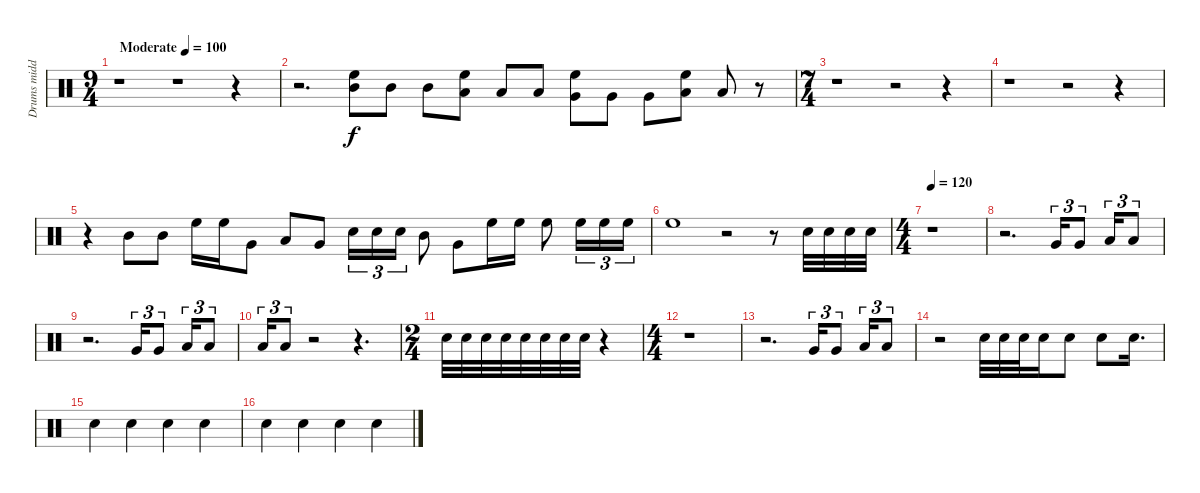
\track ("Drums middle" "Drums midd") {instrument percussion}
\staff {score}
\articulation defaults
\ts (9 4)
\tempo (100 "Moderate")
\clef neutral
\ks c
r.1{dy f} r.1 r.4 |
r.2{d} ("High Floor Tom (hit)" "Mid Tom (hit)").8 "Mid Tom (hit)".8 "Mid Tom (hit)".8 ("High Floor Tom (hit)" "Low Tom (hit)").8 "Low Tom (hit)".8 "Low Tom (hit)".8 ("High Floor Tom (hit)" "Very Low Tom (hit)").8 "Very Low Tom (hit)".8 "Very Low Tom (hit)".8 ("High Floor Tom (hit)" "Low Floor Tom (hit)").8 "Low Floor Tom (hit)".8 r.8 |
\ts (7 4)
r.1 r.2 r.4 |
r.1 r.2 r.4 |
r.4 "Mid Tom (hit)".8 "Mid Tom (hit)".8 "High Floor Tom (hit)".16 "High Floor Tom (hit)".16 "Very Low Tom (hit)".8 "Low Tom (hit)".8 "Very Low Tom (hit)".8 "Electric Snare (hit)".16{tu (3 2)} "Electric Snare (hit)".16{tu (3 2)} "Electric Snare (hit)".16{tu (3 2)} "Mid Tom (hit)".8 "Very Low Tom (hit)".8 "High Floor Tom (hit)".16 "High Floor Tom (hit)".16 "High Floor Tom (hit)".8 "High Floor Tom (hit)".16{tu (3 2)} "High Floor Tom (hit)".16{tu (3 2)} "High Floor Tom (hit)".16{tu (3 2)} |
"High Floor Tom (hit)".1 r.2 r.8 "Electric Snare (hit)".32 "Electric Snare (hit)".32 "Electric Snare (hit)".32 "Electric Snare (hit)".32 |
\ts (4 4)
\tempo 120
r.1 |
r.2{d} "Very Low Tom (hit)".16{tu (3 2)} "Very Low Tom (hit)".8{tu (3 2)} "Low Tom (hit)".16{tu (3 2)} "Low Tom (hit)".8{tu (3 2)} |
r.2{d} "Very Low Tom (hit)".16{tu (3 2)} "Very Low Tom (hit)".8{tu (3 2)} "Low Tom (hit)".16{tu (3 2)} "Low Tom (hit)".8{tu (3 2)} |
"Low Tom (hit)".16{tu (3 2)} "Low Tom (hit)".8{tu (3 2)} r.2 r.4{d} |
\ts (2 4)
"Electric Snare (hit)".32 "Electric Snare (hit)".32 "Electric Snare (hit)".32 "Electric Snare (hit)".32 "Electric Snare (hit)".32 "Electric Snare (hit)".32 "Electric Snare (hit)".32 "Electric Snare (hit)".32 r.4 |
\ts (4 4)
r.1 |
r.2{d} "Very Low Tom (hit)".16{tu (3 2)} "Very Low Tom (hit)".8{tu (3 2)} "Low Tom (hit)".16{tu (3 2)} "Low Tom (hit)".8{tu (3 2)} |
r.2 "Electric Snare (hit)".32 "Electric Snare (hit)".32 "Electric Snare (hit)".32 "Electric Snare (hit)".16 "Electric Snare (hit)".8 "Electric Snare (hit)".8 "Electric Snare (hit)".16{d} |
"Electric Snare (hit)".4 "Electric Snare (hit)".4 "Electric Snare (hit)".4 "Electric Snare (hit)".4 |
"Electric Snare (hit)".4 "Electric Snare (hit)".4 "Electric Snare (hit)".4 "Electric Snare (hit)".4
